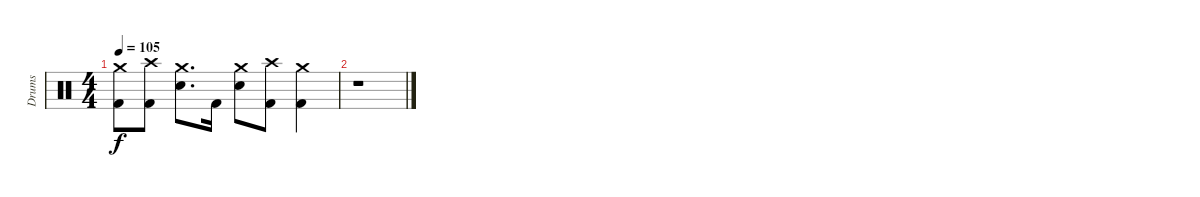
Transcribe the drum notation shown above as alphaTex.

\track ("Drums" "Drums") {instrument percussion}
\staff {score}
\articulation defaults
\ts (4 4)
\tempo 105
\clef neutral
\ks c
("Crash medium (hit)" "Kick (hit) 2").8{dy f} ("Crash high (hit)" "Kick (hit) 2").8 ("Crash medium (hit)" "Snare (hit) 2").8{d} "Kick (hit) 2".16 ("Crash medium (hit)" "Snare (hit) 2").8 ("Crash high (hit)" "Kick (hit) 2").8 ("Crash medium (hit)" "Kick (hit) 2").4 |
r.1
